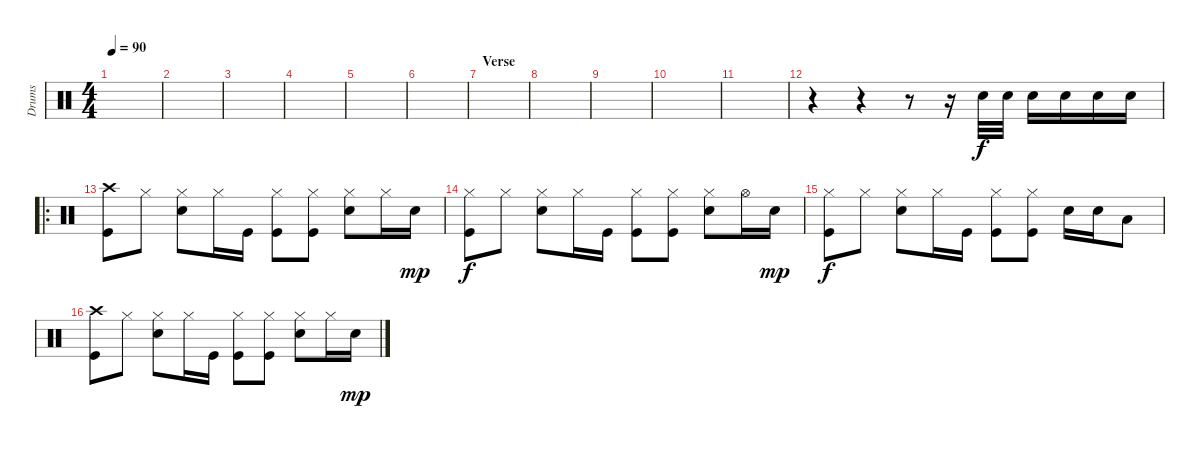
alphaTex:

\track ("Drums" "Drums") {instrument percussion}
\staff {score}
\articulation defaults
\ts (4 4)
\tempo 90
\clef neutral
\ks c
|
|
|
|
|
|
\section ("" "Verse")
|
|
|
|
|
r.4 r.4 r.8 r.16 "Snare (hit) 2".32 "Snare (hit) 2".32 "Snare (hit) 2".16 "Snare (hit) 2".16 "Snare (hit) 2".16 "Snare (hit) 2".16 |
\ro
("Crash high (hit)" "Kick (hit)").8 "Hi-Hat (closed)".8 ("Hi-Hat (closed)" "Snare (hit) 2").8 "Hi-Hat (closed)".16 "Kick (hit)".16 ("Hi-Hat (closed)" "Kick (hit)").8 ("Hi-Hat (closed)" "Kick (hit)").8 ("Hi-Hat (closed)" "Snare (hit) 2").8 "Hi-Hat (closed)".16 "Snare (hit) 2".16{dy mp} |
("Hi-Hat (closed)" "Kick (hit)").8{dy f} "Hi-Hat (closed)".8 ("Hi-Hat (closed)" "Snare (hit) 2").8 "Hi-Hat (closed)".16 "Kick (hit)".16 ("Hi-Hat (closed)" "Kick (hit)").8 ("Hi-Hat (closed)" "Kick (hit)").8 ("Hi-Hat (closed)" "Snare (hit) 2").8 "Hi-Hat (open)".16 "Snare (hit) 2".16{dy mp} |
("Hi-Hat (closed)" "Kick (hit)").8{dy f} "Hi-Hat (closed)".8 ("Hi-Hat (closed)" "Snare (hit) 2").8 "Hi-Hat (closed)".16 "Kick (hit)".16 ("Hi-Hat (closed)" "Kick (hit)").8 ("Hi-Hat (closed)" "Kick (hit)").8 "Snare (hit) 2".16 "Snare (hit) 2".16 "Low Tom (hit)".8 |
("Crash high (hit)" "Kick (hit)").8 "Hi-Hat (closed)".8 ("Hi-Hat (closed)" "Snare (hit) 2").8 "Hi-Hat (closed)".16 "Kick (hit)".16 ("Hi-Hat (closed)" "Kick (hit)").8 ("Hi-Hat (closed)" "Kick (hit)").8 ("Hi-Hat (closed)" "Snare (hit) 2").8 "Hi-Hat (closed)".16 "Snare (hit) 2".16{dy mp}
